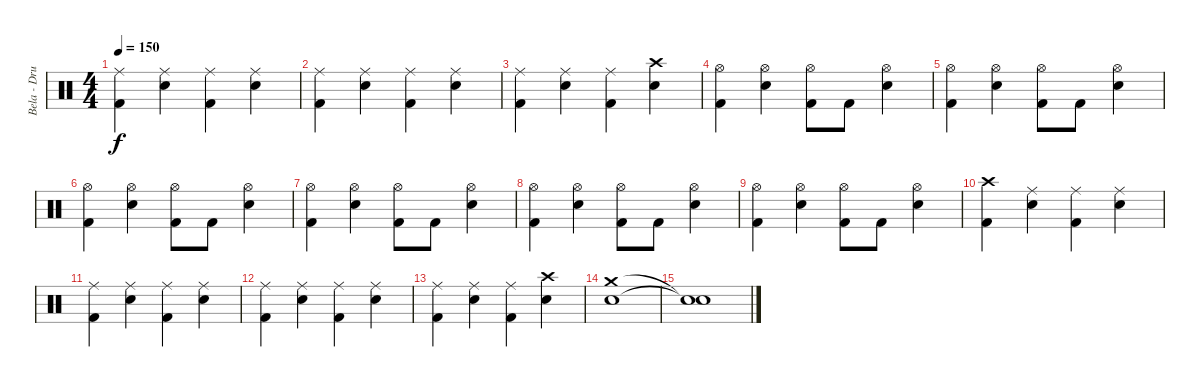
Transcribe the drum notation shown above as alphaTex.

\track ("Bela - Drums" "Bela - Dru") {instrument percussion}
\staff {score}
\articulation defaults
\ts (4 4)
\tempo 150
\clef neutral
\ks c
("Ride (middle)" "Kick (hit) 2").4{dy f} ("Ride (middle)" "Snare (hit) 2").4 ("Ride (middle)" "Kick (hit) 2").4 ("Ride (middle)" "Snare (hit) 2").4 |
("Ride (middle)" "Kick (hit) 2").4 ("Ride (middle)" "Snare (hit) 2").4 ("Ride (middle)" "Kick (hit) 2").4 ("Ride (middle)" "Snare (hit) 2").4 |
("Ride (middle)" "Kick (hit) 2").4 ("Ride (middle)" "Snare (hit) 2").4 ("Ride (middle)" "Kick (hit) 2").4 ("Crash high (hit)" "Snare (hit) 2").4 |
("Hi-Hat (open)" "Kick (hit) 2").4 ("Hi-Hat (open)" "Snare (hit) 2").4 ("Hi-Hat (open)" "Kick (hit) 2").8 "Kick (hit) 2".8 ("Hi-Hat (open)" "Snare (hit) 2").4 |
("Hi-Hat (open)" "Kick (hit) 2").4 ("Hi-Hat (open)" "Snare (hit) 2").4 ("Hi-Hat (open)" "Kick (hit) 2").8 "Kick (hit) 2".8 ("Hi-Hat (open)" "Snare (hit) 2").4 |
("Hi-Hat (open)" "Kick (hit) 2").4 ("Hi-Hat (open)" "Snare (hit) 2").4 ("Hi-Hat (open)" "Kick (hit) 2").8 "Kick (hit) 2".8 ("Hi-Hat (open)" "Snare (hit) 2").4 |
("Hi-Hat (open)" "Kick (hit) 2").4 ("Hi-Hat (open)" "Snare (hit) 2").4 ("Hi-Hat (open)" "Kick (hit) 2").8 "Kick (hit) 2".8 ("Hi-Hat (open)" "Snare (hit) 2").4 |
("Hi-Hat (open)" "Kick (hit) 2").4 ("Hi-Hat (open)" "Snare (hit) 2").4 ("Hi-Hat (open)" "Kick (hit) 2").8 "Kick (hit) 2".8 ("Hi-Hat (open)" "Snare (hit) 2").4 |
("Hi-Hat (open)" "Kick (hit) 2").4 ("Hi-Hat (open)" "Snare (hit) 2").4 ("Hi-Hat (open)" "Kick (hit) 2").8 "Kick (hit) 2".8 ("Hi-Hat (open)" "Snare (hit) 2").4 |
("Crash high (hit)" "Kick (hit) 2").4 ("Ride (middle)" "Snare (hit) 2").4 ("Ride (middle)" "Kick (hit) 2").4 ("Ride (middle)" "Snare (hit) 2").4 |
("Ride (middle)" "Kick (hit) 2").4 ("Ride (middle)" "Snare (hit) 2").4 ("Ride (middle)" "Kick (hit) 2").4 ("Ride (middle)" "Snare (hit) 2").4 |
("Ride (middle)" "Kick (hit) 2").4 ("Ride (middle)" "Snare (hit) 2").4 ("Ride (middle)" "Kick (hit) 2").4 ("Ride (middle)" "Snare (hit) 2").4 |
("Ride (middle)" "Kick (hit) 2").4 ("Ride (middle)" "Snare (hit) 2").4 ("Ride (middle)" "Kick (hit) 2").4 ("Crash high (hit)" "Snare (hit) 2").4 |
("Crash medium (hit)" "Snare (hit) 2").1 |
("Snare (hit)"{t} "Snare (hit)"{t}).1
